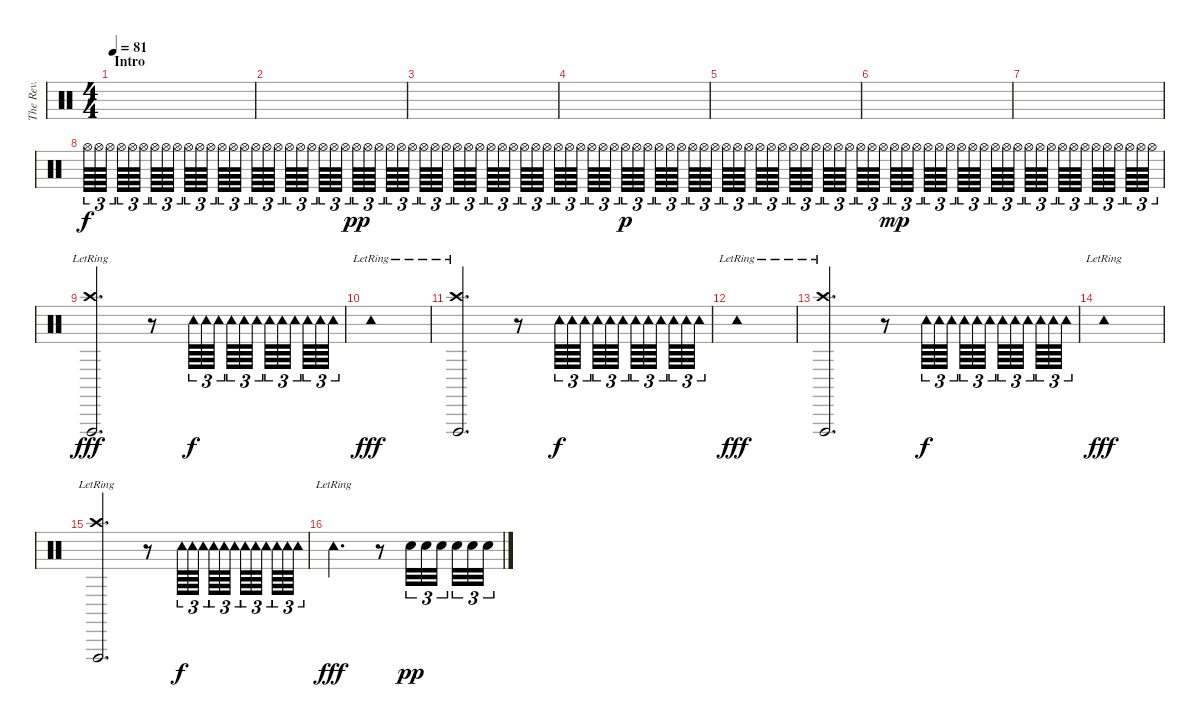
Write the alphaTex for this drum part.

\track ("The Rev." "The Rev.") {instrument percussion}
\staff {score}
\articulation defaults
\ts (4 4)
\section ("" "Intro")
\tempo 81
\clef neutral
\ks c
|
|
|
|
|
|
|
"Hi-Hat (open)".64{tu (3 2)} "Hi-Hat (open)".64{tu (3 2)} "Hi-Hat (open)".64{tu (3 2) beam splitsecondary} "Hi-Hat (open)".64{tu (3 2)} "Hi-Hat (open)".64{tu (3 2)} "Hi-Hat (open)".64{tu (3 2) beam splitsecondary} "Hi-Hat (open)".64{tu (3 2)} "Hi-Hat (open)".64{tu (3 2)} "Hi-Hat (open)".64{tu (3 2) beam splitsecondary} "Hi-Hat (open)".64{tu (3 2)} "Hi-Hat (open)".64{tu (3 2)} "Hi-Hat (open)".64{tu (3 2) beam splitsecondary} "Hi-Hat (open)".64{tu (3 2)} "Hi-Hat (open)".64{tu (3 2)} "Hi-Hat (open)".64{tu (3 2) beam splitsecondary} "Hi-Hat (open)".64{tu (3 2)} "Hi-Hat (open)".64{tu (3 2)} "Hi-Hat (open)".64{tu (3 2) beam splitsecondary} "Hi-Hat (open)".64{tu (3 2)} "Hi-Hat (open)".64{tu (3 2)} "Hi-Hat (open)".64{tu (3 2) beam splitsecondary} "Hi-Hat (open)".64{tu (3 2)} "Hi-Hat (open)".64{tu (3 2)} "Hi-Hat (open)".64{tu (3 2)} "Hi-Hat (open)".64{tu (3 2) dy pp} "Hi-Hat (open)".64{tu (3 2)} "Hi-Hat (open)".64{tu (3 2) beam splitsecondary} "Hi-Hat (open)".64{tu (3 2)} "Hi-Hat (open)".64{tu (3 2)} "Hi-Hat (open)".64{tu (3 2) beam splitsecondary} "Hi-Hat (open)".64{tu (3 2)} "Hi-Hat (open)".64{tu (3 2)} "Hi-Hat (open)".64{tu (3 2) beam splitsecondary} "Hi-Hat (open)".64{tu (3 2)} "Hi-Hat (open)".64{tu (3 2)} "Hi-Hat (open)".64{tu (3 2) beam splitsecondary} "Hi-Hat (open)".64{tu (3 2)} "Hi-Hat (open)".64{tu (3 2)} "Hi-Hat (open)".64{tu (3 2) beam splitsecondary} "Hi-Hat (open)".64{tu (3 2)} "Hi-Hat (open)".64{tu (3 2)} "Hi-Hat (open)".64{tu (3 2) beam splitsecondary} "Hi-Hat (open)".64{tu (3 2)} "Hi-Hat (open)".64{tu (3 2)} "Hi-Hat (open)".64{tu (3 2) beam splitsecondary} "Hi-Hat (open)".64{tu (3 2)} "Hi-Hat (open)".64{tu (3 2)} "Hi-Hat (open)".64{tu (3 2)} "Hi-Hat (open)".64{tu (3 2) dy p} "Hi-Hat (open)".64{tu (3 2)} "Hi-Hat (open)".64{tu (3 2) beam splitsecondary} "Hi-Hat (open)".64{tu (3 2)} "Hi-Hat (open)".64{tu (3 2)} "Hi-Hat (open)".64{tu (3 2) beam splitsecondary} "Hi-Hat (open)".64{tu (3 2)} "Hi-Hat (open)".64{tu (3 2)} "Hi-Hat (open)".64{tu (3 2) beam splitsecondary} "Hi-Hat (open)".64{tu (3 2)} "Hi-Hat (open)".64{tu (3 2)} "Hi-Hat (open)".64{tu (3 2) beam splitsecondary} "Hi-Hat (open)".64{tu (3 2)} "Hi-Hat (open)".64{tu (3 2)} "Hi-Hat (open)".64{tu (3 2) beam splitsecondary} "Hi-Hat (open)".64{tu (3 2)} "Hi-Hat (open)".64{tu (3 2)} "Hi-Hat (open)".64{tu (3 2) beam splitsecondary} "Hi-Hat (open)".64{tu (3 2)} "Hi-Hat (open)".64{tu (3 2)} "Hi-Hat (open)".64{tu (3 2) beam splitsecondary} "Hi-Hat (open)".64{tu (3 2)} "Hi-Hat (open)".64{tu (3 2)} "Hi-Hat (open)".64{tu (3 2)} "Hi-Hat (open)".64{tu (3 2) dy mp} "Hi-Hat (open)".64{tu (3 2)} "Hi-Hat (open)".64{tu (3 2) beam splitsecondary} "Hi-Hat (open)".64{tu (3 2)} "Hi-Hat (open)".64{tu (3 2)} "Hi-Hat (open)".64{tu (3 2) beam splitsecondary} "Hi-Hat (open)".64{tu (3 2)} "Hi-Hat (open)".64{tu (3 2)} "Hi-Hat (open)".64{tu (3 2) beam splitsecondary} "Hi-Hat (open)".64{tu (3 2)} "Hi-Hat (open)".64{tu (3 2)} "Hi-Hat (open)".64{tu (3 2) beam splitsecondary} "Hi-Hat (open)".64{tu (3 2)} "Hi-Hat (open)".64{tu (3 2)} "Hi-Hat (open)".64{tu (3 2) beam splitsecondary} "Hi-Hat (open)".64{tu (3 2)} "Hi-Hat (open)".64{tu (3 2)} "Hi-Hat (open)".64{tu (3 2) beam splitsecondary} "Hi-Hat (open)".64{tu (3 2)} "Hi-Hat (open)".64{tu (3 2)} "Hi-Hat (open)".64{tu (3 2) beam splitsecondary} "Hi-Hat (open)".64{tu (3 2)} "Hi-Hat (open)".64{tu (3 2)} "Hi-Hat (open)".64{tu (3 2)} |
("Vibraslap (hit)"{lr} "Crash high (hit)"{lr}).2{d dy fff} r.8 "Tambourine (hit)".64{tu (3 2) dy f} "Tambourine (hit)".64{tu (3 2)} "Tambourine (hit)".64{tu (3 2) beam splitsecondary} "Tambourine (hit)".64{tu (3 2)} "Tambourine (hit)".64{tu (3 2)} "Tambourine (hit)".64{tu (3 2) beam splitsecondary} "Tambourine (hit)".64{tu (3 2)} "Tambourine (hit)".64{tu (3 2)} "Tambourine (hit)".64{tu (3 2) beam splitsecondary} "Tambourine (hit)".64{tu (3 2)} "Tambourine (hit)".64{tu (3 2)} "Tambourine (hit)".64{tu (3 2)} |
"Tambourine (hit)"{lr}.1{dy fff} |
("Vibraslap (hit)"{lr} "Crash high (hit)"{lr}).2{d} r.8 "Tambourine (hit)".64{tu (3 2) dy f} "Tambourine (hit)".64{tu (3 2)} "Tambourine (hit)".64{tu (3 2) beam splitsecondary} "Tambourine (hit)".64{tu (3 2)} "Tambourine (hit)".64{tu (3 2)} "Tambourine (hit)".64{tu (3 2) beam splitsecondary} "Tambourine (hit)".64{tu (3 2)} "Tambourine (hit)".64{tu (3 2)} "Tambourine (hit)".64{tu (3 2) beam splitsecondary} "Tambourine (hit)".64{tu (3 2)} "Tambourine (hit)".64{tu (3 2)} "Tambourine (hit)".64{tu (3 2)} |
"Tambourine (hit)"{lr}.1{dy fff} |
("Vibraslap (hit)"{lr} "Crash high (hit)"{lr}).2{d} r.8 "Tambourine (hit)".64{tu (3 2) dy f} "Tambourine (hit)".64{tu (3 2)} "Tambourine (hit)".64{tu (3 2) beam splitsecondary} "Tambourine (hit)".64{tu (3 2)} "Tambourine (hit)".64{tu (3 2)} "Tambourine (hit)".64{tu (3 2) beam splitsecondary} "Tambourine (hit)".64{tu (3 2)} "Tambourine (hit)".64{tu (3 2)} "Tambourine (hit)".64{tu (3 2) beam splitsecondary} "Tambourine (hit)".64{tu (3 2)} "Tambourine (hit)".64{tu (3 2)} "Tambourine (hit)".64{tu (3 2)} |
"Tambourine (hit)"{lr}.1{dy fff} |
("Vibraslap (hit)"{lr} "Crash high (hit)"{lr}).2{d} r.8 "Tambourine (hit)".64{tu (3 2) dy f} "Tambourine (hit)".64{tu (3 2)} "Tambourine (hit)".64{tu (3 2) beam splitsecondary} "Tambourine (hit)".64{tu (3 2)} "Tambourine (hit)".64{tu (3 2)} "Tambourine (hit)".64{tu (3 2) beam splitsecondary} "Tambourine (hit)".64{tu (3 2)} "Tambourine (hit)".64{tu (3 2)} "Tambourine (hit)".64{tu (3 2) beam splitsecondary} "Tambourine (hit)".64{tu (3 2)} "Tambourine (hit)".64{tu (3 2)} "Tambourine (hit)".64{tu (3 2)} |
"Tambourine (hit)"{lr}.2{d dy fff} r.8 "Electric Snare (hit)".32{tu (3 2) dy pp} "Electric Snare (hit)".32{tu (3 2)} "Electric Snare (hit)".32{tu (3 2) beam splitsecondary} "Electric Snare (hit)".32{tu (3 2)} "Electric Snare (hit)".32{tu (3 2)} "Electric Snare (hit)".32{tu (3 2)}
